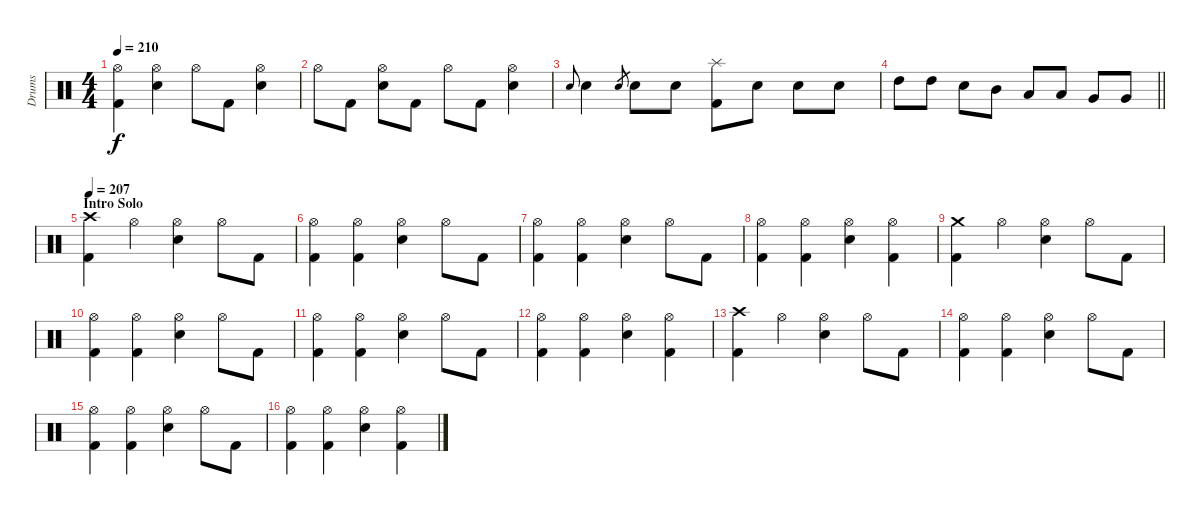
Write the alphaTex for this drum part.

\track ("Drums" "Drums") {instrument percussion}
\staff {score}
\articulation defaults
\ts (4 4)
\tempo 210
\clef neutral
\ks c
("Hi-Hat (open)" "Kick (hit) 2").4{dy f} ("Hi-Hat (open)" "Snare (hit) 2").4 "Hi-Hat (open)".8 "Kick (hit) 2".8 ("Hi-Hat (open)" "Snare (hit) 2").4 |
"Hi-Hat (open)".8 "Kick (hit) 2".8 ("Hi-Hat (open)" "Snare (hit) 2").8 "Kick (hit) 2".8 "Hi-Hat (open)".8 "Kick (hit) 2".8 ("Hi-Hat (open)" "Snare (hit) 2").4 |
"Snare (hit) 2".8{gr onbeat} "Snare (hit) 2".4 "Snare (hit) 2".8{gr} "Snare (hit) 2".8 "Snare (hit) 2".8 ("Splash (hit)" "Kick (hit) 2").8 "Snare (hit) 2".8 "Snare (hit) 2".8 "Snare (hit) 2".8 |
\barLineRight lightlight "High Tom (hit)".8 "High Tom (hit)".8 "Snare (hit) 2".8 "Mid Tom (hit)".8 "Low Tom (hit)".8 "Low Tom (hit)".8 "Very Low Tom (hit)".8 "Very Low Tom (hit)".8
|
\section ("" "Intro Solo")
\tempo 207
("Crash high (hit)" "Kick (hit) 2").4 "Hi-Hat (open)".4 ("Hi-Hat (open)" "Snare (hit) 2").4 "Hi-Hat (open)".8 "Kick (hit) 2".8 |
("Hi-Hat (open)" "Kick (hit) 2").4 ("Hi-Hat (open)" "Kick (hit) 2").4 ("Hi-Hat (open)" "Snare (hit) 2").4 "Hi-Hat (open)".8 "Kick (hit) 2".8 |
("Hi-Hat (open)" "Kick (hit) 2").4 ("Hi-Hat (open)" "Kick (hit) 2").4 ("Hi-Hat (open)" "Snare (hit) 2").4 "Hi-Hat (open)".8 "Kick (hit) 2".8 |
("Hi-Hat (open)" "Kick (hit) 2").4 ("Hi-Hat (open)" "Kick (hit) 2").4 ("Hi-Hat (open)" "Snare (hit) 2").4 ("Hi-Hat (open)" "Kick (hit) 2").4 |
("Crash medium (hit)" "Kick (hit) 2").4 "Hi-Hat (open)".4 ("Hi-Hat (open)" "Snare (hit) 2").4 "Hi-Hat (open)".8 "Kick (hit) 2".8 |
("Hi-Hat (open)" "Kick (hit) 2").4 ("Hi-Hat (open)" "Kick (hit) 2").4 ("Hi-Hat (open)" "Snare (hit) 2").4 "Hi-Hat (open)".8 "Kick (hit) 2".8 |
("Hi-Hat (open)" "Kick (hit) 2").4 ("Hi-Hat (open)" "Kick (hit) 2").4 ("Hi-Hat (open)" "Snare (hit) 2").4 "Hi-Hat (open)".8 "Kick (hit) 2".8 |
("Hi-Hat (open)" "Kick (hit) 2").4 ("Hi-Hat (open)" "Kick (hit) 2").4 ("Hi-Hat (open)" "Snare (hit) 2").4 ("Hi-Hat (open)" "Kick (hit) 2").4 |
("Crash high (hit)" "Kick (hit) 2").4 "Hi-Hat (open)".4 ("Hi-Hat (open)" "Snare (hit) 2").4 "Hi-Hat (open)".8 "Kick (hit) 2".8 |
("Hi-Hat (open)" "Kick (hit) 2").4 ("Hi-Hat (open)" "Kick (hit) 2").4 ("Hi-Hat (open)" "Snare (hit) 2").4 "Hi-Hat (open)".8 "Kick (hit) 2".8 |
("Hi-Hat (open)" "Kick (hit) 2").4 ("Hi-Hat (open)" "Kick (hit) 2").4 ("Hi-Hat (open)" "Snare (hit) 2").4 "Hi-Hat (open)".8 "Kick (hit) 2".8 |
("Hi-Hat (open)" "Kick (hit) 2").4 ("Hi-Hat (open)" "Kick (hit) 2").4 ("Hi-Hat (open)" "Snare (hit) 2").4 ("Hi-Hat (open)" "Kick (hit) 2").4
